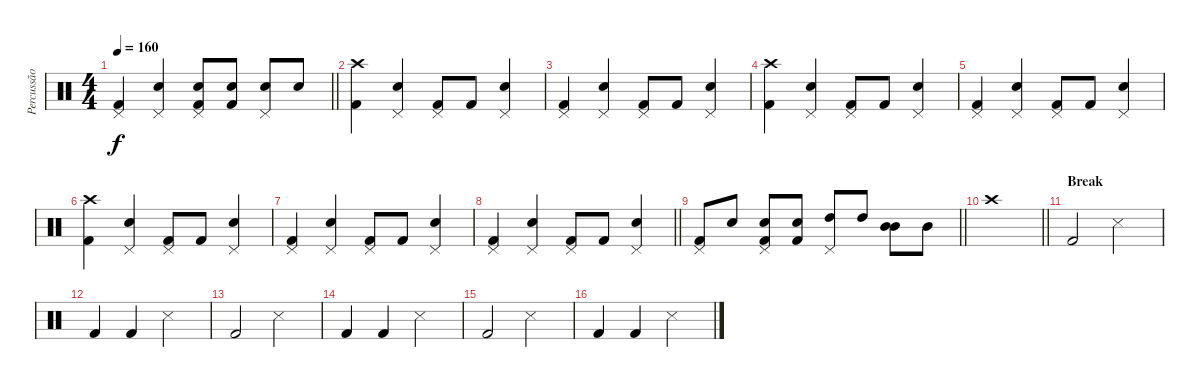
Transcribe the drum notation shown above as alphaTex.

\track ("Percussão" "Percussão") {instrument percussion}
\staff {score}
\articulation defaults
\ts (4 4)
\tempo 160
\clef neutral
\barLineRight lightlight
\ks c
("Pedal Hi-Hat (hit)" "Kick (hit) 2").4{dy f} ("Pedal Hi-Hat (hit)" "Snare (hit) 2").4 ("Pedal Hi-Hat (hit)" "Snare (hit) 2" "Kick (hit) 2").8 ("Snare (hit) 2" "Kick (hit) 2").8 ("Pedal Hi-Hat (hit)" "Snare (hit) 2").8 "Snare (hit) 2".8 |
("Crash high (hit)" "Kick (hit) 2").4 ("Pedal Hi-Hat (hit)" "Snare (hit) 2").4 ("Pedal Hi-Hat (hit)" "Kick (hit) 2").8 "Kick (hit) 2".8 ("Pedal Hi-Hat (hit)" "Snare (hit) 2").4 |
("Pedal Hi-Hat (hit)" "Kick (hit) 2").4 ("Pedal Hi-Hat (hit)" "Snare (hit) 2").4 ("Pedal Hi-Hat (hit)" "Kick (hit) 2").8 "Kick (hit) 2".8 ("Pedal Hi-Hat (hit)" "Snare (hit) 2").4 |
("Crash high (hit)" "Kick (hit) 2").4 ("Pedal Hi-Hat (hit)" "Snare (hit) 2").4 ("Pedal Hi-Hat (hit)" "Kick (hit) 2").8 "Kick (hit) 2".8 ("Pedal Hi-Hat (hit)" "Snare (hit) 2").4 |
("Pedal Hi-Hat (hit)" "Kick (hit) 2").4 ("Pedal Hi-Hat (hit)" "Snare (hit) 2").4 ("Pedal Hi-Hat (hit)" "Kick (hit) 2").8 "Kick (hit) 2".8 ("Pedal Hi-Hat (hit)" "Snare (hit) 2").4 |
("Crash high (hit)" "Kick (hit) 2").4 ("Pedal Hi-Hat (hit)" "Snare (hit) 2").4 ("Pedal Hi-Hat (hit)" "Kick (hit) 2").8 "Kick (hit) 2".8 ("Pedal Hi-Hat (hit)" "Snare (hit) 2").4 |
("Pedal Hi-Hat (hit)" "Kick (hit) 2").4 ("Pedal Hi-Hat (hit)" "Snare (hit) 2").4 ("Pedal Hi-Hat (hit)" "Kick (hit) 2").8 "Kick (hit) 2".8 ("Pedal Hi-Hat (hit)" "Snare (hit) 2").4 |
\barLineRight lightlight
("Pedal Hi-Hat (hit)" "Kick (hit) 2").4 ("Pedal Hi-Hat (hit)" "Snare (hit) 2").4 ("Pedal Hi-Hat (hit)" "Kick (hit) 2").8 "Kick (hit) 2".8 ("Pedal Hi-Hat (hit)" "Snare (hit) 2").4 |
\barLineRight lightlight
("Pedal Hi-Hat (hit)" "Kick (hit) 2").8 "Snare (hit) 2".8 ("Pedal Hi-Hat (hit)" "Snare (hit) 2" "Kick (hit) 2").8 ("Snare (hit) 2" "Kick (hit) 2").8 ("Pedal Hi-Hat (hit)" "High Tom (hit)").8 "High Tom (hit)".8 ("Mid Tom (hit)" "Mid Tom (hit)").8 "Mid Tom (hit)".8 |
\barLineRight lightlight "Crash high (hit)".1
|
\section ("" "Break")
"Kick (hit) 2".2 "Snare (side stick) 3".2 |
"Kick (hit) 2".4 "Kick (hit) 2".4 "Snare (side stick) 3".2 |
"Kick (hit) 2".2 "Snare (side stick) 3".2 |
"Kick (hit) 2".4 "Kick (hit) 2".4 "Snare (side stick) 3".2 |
"Kick (hit) 2".2 "Snare (side stick) 3".2 |
"Kick (hit) 2".4 "Kick (hit) 2".4 "Snare (side stick) 3".2
